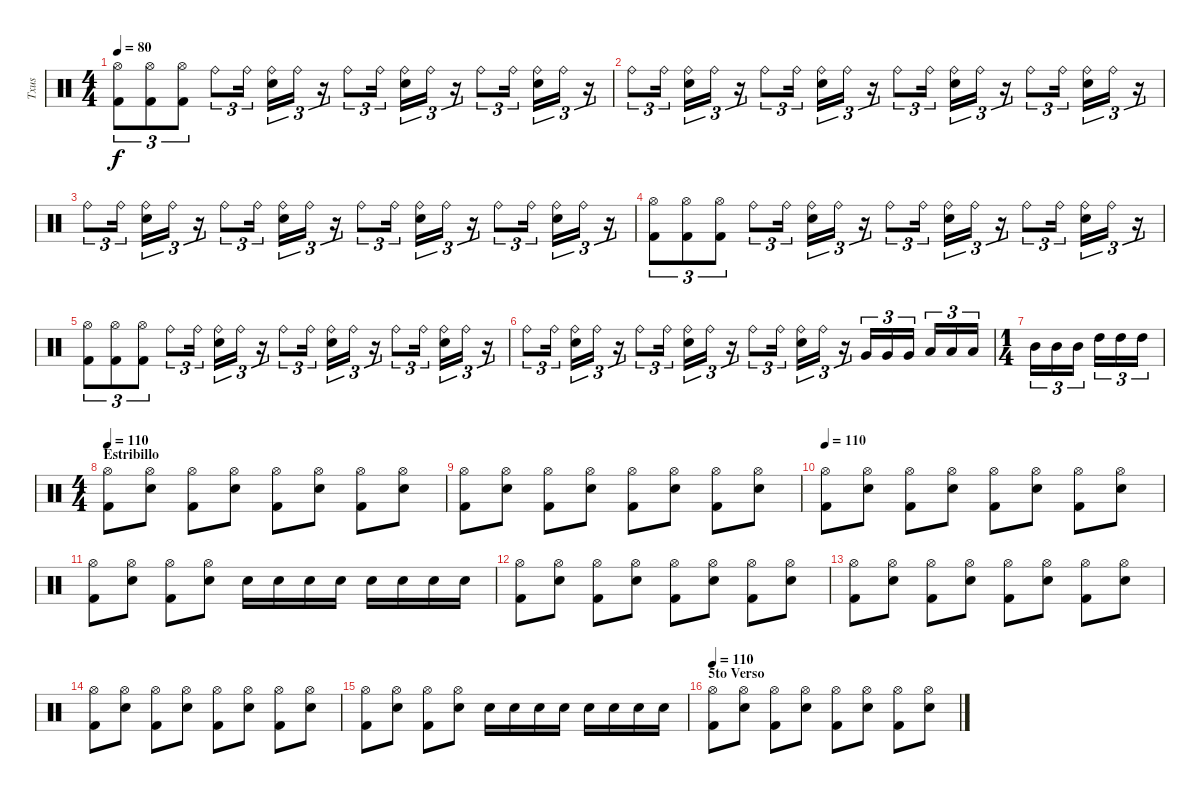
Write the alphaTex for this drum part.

\track ("Txus" "Txus") {instrument percussion}
\staff {score}
\articulation defaults
\ts (4 4)
\tempo 80
\clef neutral
\ks c
("Hi-Hat (open)" "Kick (hit) 2").8{tu (3 2) dy f} ("Hi-Hat (open)" "Kick (hit) 2").8{tu (3 2)} ("Hi-Hat (open)" "Kick (hit) 2").8{tu (3 2)} "Ride (bell)".8{tu (3 2)} "Ride (bell)".16{tu (3 2)} ("Ride (bell)" "Snare (hit) 2").16{tu (3 2)} "Ride (bell)".16{tu (3 2)} r.16{tu (3 2)} "Ride (bell)".8{tu (3 2)} "Ride (bell)".16{tu (3 2)} ("Ride (bell)" "Snare (hit) 2").16{tu (3 2)} "Ride (bell)".16{tu (3 2)} r.16{tu (3 2)} "Ride (bell)".8{tu (3 2)} "Ride (bell)".16{tu (3 2)} ("Ride (bell)" "Snare (hit) 2").16{tu (3 2)} "Ride (bell)".16{tu (3 2)} r.16{tu (3 2)} |
"Ride (bell)".8{tu (3 2)} "Ride (bell)".16{tu (3 2)} ("Ride (bell)" "Snare (hit) 2").16{tu (3 2)} "Ride (bell)".16{tu (3 2)} r.16{tu (3 2)} "Ride (bell)".8{tu (3 2)} "Ride (bell)".16{tu (3 2)} ("Ride (bell)" "Snare (hit) 2").16{tu (3 2)} "Ride (bell)".16{tu (3 2)} r.16{tu (3 2)} "Ride (bell)".8{tu (3 2)} "Ride (bell)".16{tu (3 2)} ("Ride (bell)" "Snare (hit) 2").16{tu (3 2)} "Ride (bell)".16{tu (3 2)} r.16{tu (3 2)} "Ride (bell)".8{tu (3 2)} "Ride (bell)".16{tu (3 2)} ("Ride (bell)" "Snare (hit) 2").16{tu (3 2)} "Ride (bell)".16{tu (3 2)} r.16{tu (3 2)} |
"Ride (bell)".8{tu (3 2)} "Ride (bell)".16{tu (3 2)} ("Ride (bell)" "Snare (hit) 2").16{tu (3 2)} "Ride (bell)".16{tu (3 2)} r.16{tu (3 2)} "Ride (bell)".8{tu (3 2)} "Ride (bell)".16{tu (3 2)} ("Ride (bell)" "Snare (hit) 2").16{tu (3 2)} "Ride (bell)".16{tu (3 2)} r.16{tu (3 2)} "Ride (bell)".8{tu (3 2)} "Ride (bell)".16{tu (3 2)} ("Ride (bell)" "Snare (hit) 2").16{tu (3 2)} "Ride (bell)".16{tu (3 2)} r.16{tu (3 2)} "Ride (bell)".8{tu (3 2)} "Ride (bell)".16{tu (3 2)} ("Ride (bell)" "Snare (hit) 2").16{tu (3 2)} "Ride (bell)".16{tu (3 2)} r.16{tu (3 2)} |
("Hi-Hat (open)" "Kick (hit) 2").8{tu (3 2)} ("Hi-Hat (open)" "Kick (hit) 2").8{tu (3 2)} ("Hi-Hat (open)" "Kick (hit) 2").8{tu (3 2)} "Ride (bell)".8{tu (3 2)} "Ride (bell)".16{tu (3 2)} ("Ride (bell)" "Snare (hit) 2").16{tu (3 2)} "Ride (bell)".16{tu (3 2)} r.16{tu (3 2)} "Ride (bell)".8{tu (3 2)} "Ride (bell)".16{tu (3 2)} ("Ride (bell)" "Snare (hit) 2").16{tu (3 2)} "Ride (bell)".16{tu (3 2)} r.16{tu (3 2)} "Ride (bell)".8{tu (3 2)} "Ride (bell)".16{tu (3 2)} ("Ride (bell)" "Snare (hit) 2").16{tu (3 2)} "Ride (bell)".16{tu (3 2)} r.16{tu (3 2)} |
("Hi-Hat (open)" "Kick (hit) 2").8{tu (3 2)} ("Hi-Hat (open)" "Kick (hit) 2").8{tu (3 2)} ("Hi-Hat (open)" "Kick (hit) 2").8{tu (3 2)} "Ride (bell)".8{tu (3 2)} "Ride (bell)".16{tu (3 2)} ("Ride (bell)" "Snare (hit) 2").16{tu (3 2)} "Ride (bell)".16{tu (3 2)} r.16{tu (3 2)} "Ride (bell)".8{tu (3 2)} "Ride (bell)".16{tu (3 2)} ("Ride (bell)" "Snare (hit) 2").16{tu (3 2)} "Ride (bell)".16{tu (3 2)} r.16{tu (3 2)} "Ride (bell)".8{tu (3 2)} "Ride (bell)".16{tu (3 2)} ("Ride (bell)" "Snare (hit) 2").16{tu (3 2)} "Ride (bell)".16{tu (3 2)} r.16{tu (3 2)} |
"Ride (bell)".8{tu (3 2)} "Ride (bell)".16{tu (3 2)} ("Ride (bell)" "Snare (hit) 2").16{tu (3 2)} "Ride (bell)".16{tu (3 2)} r.16{tu (3 2)} "Ride (bell)".8{tu (3 2)} "Ride (bell)".16{tu (3 2)} ("Ride (bell)" "Snare (hit) 2").16{tu (3 2)} "Ride (bell)".16{tu (3 2)} r.16{tu (3 2)} "Ride (bell)".8{tu (3 2)} "Ride (bell)".16{tu (3 2)} ("Ride (bell)" "Snare (hit) 2").16{tu (3 2)} "Ride (bell)".16{tu (3 2)} r.16{tu (3 2)} "Very Low Tom (hit)".16{tu (3 2)} "Very Low Tom (hit)".16{tu (3 2)} "Very Low Tom (hit)".16{tu (3 2)} "Low Tom (hit)".16{tu (3 2)} "Low Tom (hit)".16{tu (3 2)} "Low Tom (hit)".16{tu (3 2)} |
\ts (1 4)
"Mid Tom (hit)".16{tu (3 2)} "Mid Tom (hit)".16{tu (3 2)} "Mid Tom (hit)".16{tu (3 2)} "High Tom (hit)".16{tu (3 2)} "High Tom (hit)".16{tu (3 2)} "High Tom (hit)".16{tu (3 2)} |
\ts (4 4)
\section ("" "Estribillo")
\tempo 110
("Hi-Hat (open)" "Kick (hit) 2").8 ("Hi-Hat (open)" "Snare (hit) 2").8 ("Hi-Hat (open)" "Kick (hit) 2").8 ("Hi-Hat (open)" "Snare (hit) 2").8 ("Hi-Hat (open)" "Kick (hit) 2").8 ("Hi-Hat (open)" "Snare (hit) 2").8 ("Hi-Hat (open)" "Kick (hit) 2").8 ("Hi-Hat (open)" "Snare (hit) 2").8 |
("Hi-Hat (open)" "Kick (hit) 2").8 ("Hi-Hat (open)" "Snare (hit) 2").8 ("Hi-Hat (open)" "Kick (hit) 2").8 ("Hi-Hat (open)" "Snare (hit) 2").8 ("Hi-Hat (open)" "Kick (hit) 2").8 ("Hi-Hat (open)" "Snare (hit) 2").8 ("Hi-Hat (open)" "Kick (hit) 2").8 ("Hi-Hat (open)" "Snare (hit) 2").8 |
\tempo 110
("Hi-Hat (open)" "Kick (hit) 2").8 ("Hi-Hat (open)" "Snare (hit) 2").8 ("Hi-Hat (open)" "Kick (hit) 2").8 ("Hi-Hat (open)" "Snare (hit) 2").8 ("Hi-Hat (open)" "Kick (hit) 2").8 ("Hi-Hat (open)" "Snare (hit) 2").8 ("Hi-Hat (open)" "Kick (hit) 2").8 ("Hi-Hat (open)" "Snare (hit) 2").8 |
("Hi-Hat (open)" "Kick (hit) 2").8 ("Hi-Hat (open)" "Snare (hit) 2").8 ("Hi-Hat (open)" "Kick (hit) 2").8 ("Hi-Hat (open)" "Snare (hit) 2").8 "Snare (hit) 2".16 "Snare (hit) 2".16 "Snare (hit) 2".16 "Snare (hit) 2".16 "Snare (hit) 2".16 "Snare (hit) 2".16 "Snare (hit) 2".16 "Snare (hit) 2".16 |
("Hi-Hat (open)" "Kick (hit) 2").8 ("Hi-Hat (open)" "Snare (hit) 2").8 ("Hi-Hat (open)" "Kick (hit) 2").8 ("Hi-Hat (open)" "Snare (hit) 2").8 ("Hi-Hat (open)" "Kick (hit) 2").8 ("Hi-Hat (open)" "Snare (hit) 2").8 ("Hi-Hat (open)" "Kick (hit) 2").8 ("Hi-Hat (open)" "Snare (hit) 2").8 |
("Hi-Hat (open)" "Kick (hit) 2").8 ("Hi-Hat (open)" "Snare (hit) 2").8 ("Hi-Hat (open)" "Kick (hit) 2").8 ("Hi-Hat (open)" "Snare (hit) 2").8 ("Hi-Hat (open)" "Kick (hit) 2").8 ("Hi-Hat (open)" "Snare (hit) 2").8 ("Hi-Hat (open)" "Kick (hit) 2").8 ("Hi-Hat (open)" "Snare (hit) 2").8 |
("Hi-Hat (open)" "Kick (hit) 2").8 ("Hi-Hat (open)" "Snare (hit) 2").8 ("Hi-Hat (open)" "Kick (hit) 2").8 ("Hi-Hat (open)" "Snare (hit) 2").8 ("Hi-Hat (open)" "Kick (hit) 2").8 ("Hi-Hat (open)" "Snare (hit) 2").8 ("Hi-Hat (open)" "Kick (hit) 2").8 ("Hi-Hat (open)" "Snare (hit) 2").8 |
("Hi-Hat (open)" "Kick (hit) 2").8 ("Hi-Hat (open)" "Snare (hit) 2").8 ("Hi-Hat (open)" "Kick (hit) 2").8 ("Hi-Hat (open)" "Snare (hit) 2").8 "Snare (hit) 2".16 "Snare (hit) 2".16 "Snare (hit) 2".16 "Snare (hit) 2".16 "Snare (hit) 2".16 "Snare (hit) 2".16 "Snare (hit) 2".16 "Snare (hit) 2".16 |
\section ("" "5to Verso")
\tempo 110
("Hi-Hat (open)" "Kick (hit) 2").8 ("Hi-Hat (open)" "Snare (hit) 2").8 ("Hi-Hat (open)" "Kick (hit) 2").8 ("Hi-Hat (open)" "Snare (hit) 2").8 ("Hi-Hat (open)" "Kick (hit) 2").8 ("Hi-Hat (open)" "Snare (hit) 2").8 ("Hi-Hat (open)" "Kick (hit) 2").8 ("Hi-Hat (open)" "Snare (hit) 2").8
